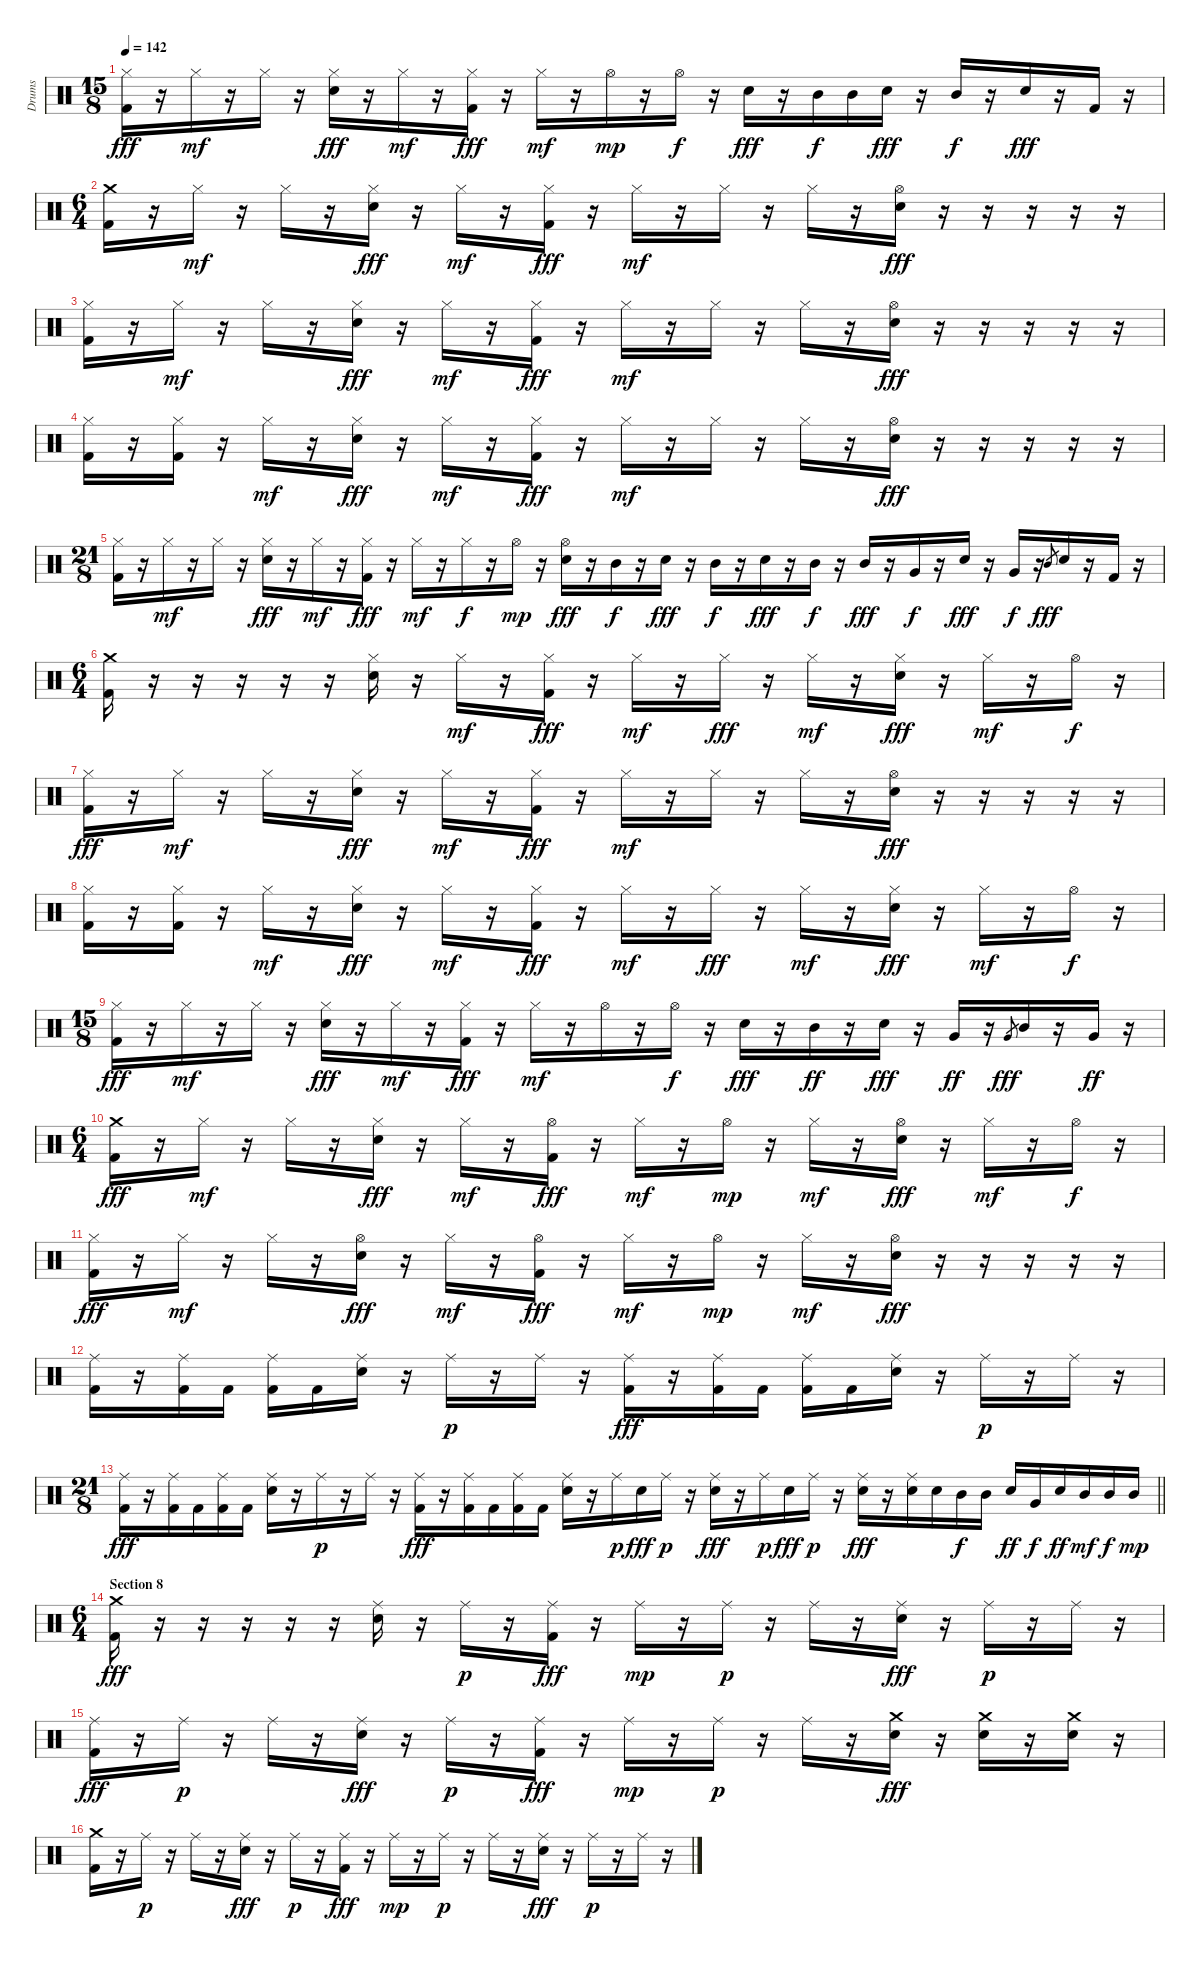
\track ("Drums" "Drums") {instrument percussion}
\staff {score}
\articulation defaults
\ts (15 8)
\tempo 142
\clef neutral
\ks c
("Hi-Hat (closed)" "Kick (hit) 2").16{dy fff} r.16 "Hi-Hat (closed)".16{dy mf} r.16 "Hi-Hat (closed)".16 r.16 ("Hi-Hat (closed)" "Electric Snare (hit)").16{dy fff} r.16 "Hi-Hat (closed)".16{dy mf} r.16 ("Hi-Hat (closed)" "Kick (hit) 2").16{dy fff} r.16 "Hi-Hat (closed)".16{dy mf} r.16 "Hi-Hat (open)".16{dy mp} r.16 "Hi-Hat (open)".16{dy f} r.16 "Electric Snare (hit)".16{dy fff} r.16 "Mid Tom (hit)".16{dy f} "Mid Tom (hit)".16 "Electric Snare (hit)".16{dy fff} r.16 "Mid Tom (hit)".16{dy f} r.16 "Electric Snare (hit)".16{dy fff} r.16 "Kick (hit) 2".16 r.16 |
\ts (6 4)
("Crash medium (hit)" "Kick (hit) 2").16 r.16 "Hi-Hat (closed)".16{dy mf} r.16 "Hi-Hat (closed)".16 r.16 ("Hi-Hat (closed)" "Electric Snare (hit)").16{dy fff} r.16 "Hi-Hat (closed)".16{dy mf} r.16 ("Hi-Hat (closed)" "Kick (hit) 2").16{dy fff} r.16 "Hi-Hat (closed)".16{dy mf} r.16 "Hi-Hat (closed)".16 r.16 "Hi-Hat (closed)".16 r.16 ("Hi-Hat (open)" "Electric Snare (hit)").16{dy fff} r.16 r.16 r.16 r.16 r.16 |
("Hi-Hat (closed)" "Kick (hit) 2").16 r.16 "Hi-Hat (closed)".16{dy mf} r.16 "Hi-Hat (closed)".16 r.16 ("Hi-Hat (closed)" "Electric Snare (hit)").16{dy fff} r.16 "Hi-Hat (closed)".16{dy mf} r.16 ("Hi-Hat (closed)" "Kick (hit) 2").16{dy fff} r.16 "Hi-Hat (closed)".16{dy mf} r.16 "Hi-Hat (closed)".16 r.16 "Hi-Hat (closed)".16 r.16 ("Hi-Hat (open)" "Electric Snare (hit)").16{dy fff} r.16 r.16 r.16 r.16 r.16 |
("Hi-Hat (closed)" "Kick (hit) 2").16 r.16 ("Hi-Hat (closed)" "Kick (hit) 2").16 r.16 "Hi-Hat (closed)".16{dy mf} r.16 ("Hi-Hat (closed)" "Electric Snare (hit)").16{dy fff} r.16 "Hi-Hat (closed)".16{dy mf} r.16 ("Hi-Hat (closed)" "Kick (hit) 2").16{dy fff} r.16 "Hi-Hat (closed)".16{dy mf} r.16 "Hi-Hat (closed)".16 r.16 "Hi-Hat (closed)".16 r.16 ("Hi-Hat (open)" "Electric Snare (hit)").16{dy fff} r.16 r.16 r.16 r.16 r.16 |
\ts (21 8)
("Hi-Hat (closed)" "Kick (hit) 2").16 r.16 "Hi-Hat (closed)".16{dy mf} r.16 "Hi-Hat (closed)".16 r.16 ("Hi-Hat (closed)" "Electric Snare (hit)").16{dy fff} r.16 "Hi-Hat (closed)".16{dy mf} r.16 ("Hi-Hat (closed)" "Kick (hit) 2").16{dy fff} r.16 "Hi-Hat (closed)".16{dy mf} r.16 "Hi-Hat (closed)".16{dy f} r.16 "Hi-Hat (open)".16{dy mp} r.16 ("Hi-Hat (open)" "Electric Snare (hit)").16{dy fff} r.16 "Mid Tom (hit)".16{dy f} r.16 "Electric Snare (hit)".16{dy fff} r.16 "Mid Tom (hit)".16{dy f} r.16 "Electric Snare (hit)".16{dy fff} r.16 "Mid Tom (hit)".16{dy f} r.16 "Mid Tom (hit)".16{dy fff} r.16 "Very Low Tom (hit)".16{dy f} r.16 "Electric Snare (hit)".16{dy fff} r.16 "Very Low Tom (hit)".16{dy f} r.16 "Mid Tom (hit)".8{gr dy fff} "Electric Snare (hit)".16 r.16 "Kick (hit) 2".16 r.16 |
\ts (6 4)
("Crash medium (hit)" "Kick (hit) 2").16 r.16 r.16 r.16 r.16 r.16 ("Hi-Hat (closed)" "Electric Snare (hit)").16 r.16 "Hi-Hat (closed)".16{dy mf} r.16 ("Hi-Hat (closed)" "Kick (hit) 2").16{dy fff} r.16 "Hi-Hat (closed)".16{dy mf} r.16 "Hi-Hat (closed)".16{dy fff} r.16 "Hi-Hat (closed)".16{dy mf} r.16 ("Hi-Hat (closed)" "Electric Snare (hit)").16{dy fff} r.16 "Hi-Hat (closed)".16{dy mf} r.16 "Hi-Hat (open)".16{dy f} r.16 |
("Hi-Hat (closed)" "Kick (hit) 2").16{dy fff} r.16 "Hi-Hat (closed)".16{dy mf} r.16 "Hi-Hat (closed)".16 r.16 ("Hi-Hat (closed)" "Electric Snare (hit)").16{dy fff} r.16 "Hi-Hat (closed)".16{dy mf} r.16 ("Hi-Hat (closed)" "Kick (hit) 2").16{dy fff} r.16 "Hi-Hat (closed)".16{dy mf} r.16 "Hi-Hat (closed)".16 r.16 "Hi-Hat (closed)".16 r.16 ("Hi-Hat (open)" "Electric Snare (hit)").16{dy fff} r.16 r.16 r.16 r.16 r.16 |
("Hi-Hat (closed)" "Kick (hit) 2").16 r.16 ("Hi-Hat (closed)" "Kick (hit) 2").16 r.16 "Hi-Hat (closed)".16{dy mf} r.16 ("Hi-Hat (closed)" "Electric Snare (hit)").16{dy fff} r.16 "Hi-Hat (closed)".16{dy mf} r.16 ("Hi-Hat (closed)" "Kick (hit) 2").16{dy fff} r.16 "Hi-Hat (closed)".16{dy mf} r.16 "Hi-Hat (closed)".16{dy fff} r.16 "Hi-Hat (closed)".16{dy mf} r.16 ("Hi-Hat (closed)" "Electric Snare (hit)").16{dy fff} r.16 "Hi-Hat (closed)".16{dy mf} r.16 "Hi-Hat (open)".16{dy f} r.16 |
\ts (15 8)
("Hi-Hat (closed)" "Kick (hit) 2").16{dy fff} r.16 "Hi-Hat (closed)".16{dy mf} r.16 "Hi-Hat (closed)".16 r.16 ("Hi-Hat (closed)" "Electric Snare (hit)").16{dy fff} r.16 "Hi-Hat (closed)".16{dy mf} r.16 ("Hi-Hat (closed)" "Kick (hit) 2").16{dy fff} r.16 "Hi-Hat (closed)".16{dy mf} r.16 "Hi-Hat (open)".16 r.16 "Hi-Hat (open)".16{dy f} r.16 "Electric Snare (hit)".16{dy fff} r.16 "Mid Tom (hit)".16{dy ff} r.16 "Electric Snare (hit)".16{dy fff} r.16 "Very Low Tom (hit)".16{dy ff} r.16 "Very Low Tom (hit)".8{gr dy fff} "Mid Tom (hit)".16 r.16 "Very Low Tom (hit)".16{dy ff} r.16 |
\ts (6 4)
("Crash medium (hit)" "Kick (hit) 2").16{dy fff} r.16 "Hi-Hat (closed)".16{dy mf} r.16 "Hi-Hat (closed)".16 r.16 ("Hi-Hat (closed)" "Electric Snare (hit)").16{dy fff} r.16 "Hi-Hat (closed)".16{dy mf} r.16 ("Hi-Hat (open)" "Kick (hit) 2").16{dy fff} r.16 "Hi-Hat (closed)".16{dy mf} r.16 "Hi-Hat (open)".16{dy mp} r.16 "Hi-Hat (closed)".16{dy mf} r.16 ("Hi-Hat (open)" "Electric Snare (hit)").16{dy fff} r.16 "Hi-Hat (closed)".16{dy mf} r.16 "Hi-Hat (open)".16{dy f} r.16 |
("Hi-Hat (closed)" "Kick (hit) 2").16{dy fff} r.16 "Hi-Hat (closed)".16{dy mf} r.16 "Hi-Hat (closed)".16 r.16 ("Hi-Hat (open)" "Electric Snare (hit)").16{dy fff} r.16 "Hi-Hat (closed)".16{dy mf} r.16 ("Hi-Hat (open)" "Kick (hit) 2").16{dy fff} r.16 "Hi-Hat (closed)".16{dy mf} r.16 "Hi-Hat (open)".16{dy mp} r.16 "Hi-Hat (closed)".16{dy mf} r.16 ("Hi-Hat (open)" "Electric Snare (hit)").16{dy fff} r.16 r.16 r.16 r.16 r.16 |
("Ride (middle)" "Kick (hit) 2").16 r.16 ("Ride (middle)" "Kick (hit) 2").16 "Kick (hit) 2".16 ("Ride (middle)" "Kick (hit) 2").16 "Kick (hit) 2".16 ("Ride (middle)" "Electric Snare (hit)").16 r.16 "Ride (middle)".16{dy p} r.16 "Ride (middle)".16 r.16 ("Ride (middle)" "Kick (hit) 2").16{dy fff} r.16 ("Ride (middle)" "Kick (hit) 2").16 "Kick (hit) 2".16 ("Ride (middle)" "Kick (hit) 2").16 "Kick (hit) 2".16 ("Ride (middle)" "Electric Snare (hit)").16 r.16 "Ride (middle)".16{dy p} r.16 "Ride (middle)".16 r.16 |
\ts (21 8)
\barLineRight lightlight
("Ride (middle)" "Kick (hit) 2").16{dy fff} r.16 ("Ride (middle)" "Kick (hit) 2").16 "Kick (hit) 2".16 ("Ride (middle)" "Kick (hit) 2").16 "Kick (hit) 2".16 ("Ride (middle)" "Electric Snare (hit)").16 r.16 "Ride (middle)".16{dy p} r.16 "Ride (middle)".16 r.16 ("Ride (middle)" "Kick (hit) 2").16{dy fff} r.16 ("Ride (middle)" "Kick (hit) 2").16 "Kick (hit) 2".16 ("Ride (middle)" "Kick (hit) 2").16 "Kick (hit) 2".16 ("Ride (middle)" "Electric Snare (hit)").16 r.16 "Ride (middle)".16{dy p} "Electric Snare (hit)".16{dy fff} "Ride (middle)".16{dy p} r.16 ("Ride (middle)" "Electric Snare (hit)").16{dy fff} r.16 "Ride (middle)".16{dy p} "Electric Snare (hit)".16{dy fff} "Ride (middle)".16{dy p} r.16 ("Ride (middle)" "Electric Snare (hit)").16{dy fff} r.16 ("Ride (middle)" "Electric Snare (hit)").16 "Electric Snare (hit)".16 "Mid Tom (hit)".16{dy f} "Mid Tom (hit)".16 "Electric Snare (hit)".16{dy ff} "Very Low Tom (hit)".16{dy f} "Electric Snare (hit)".16{dy ff} "Mid Tom (hit)".16{dy mf} "Mid Tom (hit)".16{dy f} "Mid Tom (hit)".16{dy mp} |
\ts (6 4)
\section ("" "Section 8")
("Crash medium (hit)" "Kick (hit) 2").16{dy fff} r.16 r.16 r.16 r.16 r.16 ("Ride (middle)" "Electric Snare (hit)").16 r.16 "Ride (middle)".16{dy p} r.16 ("Ride (middle)" "Kick (hit) 2").16{dy fff} r.16 "Ride (middle)".16{dy mp} r.16 "Ride (middle)".16{dy p} r.16 "Ride (middle)".16 r.16 ("Ride (middle)" "Electric Snare (hit)").16{dy fff} r.16 "Ride (middle)".16{dy p} r.16 "Ride (middle)".16 r.16 |
("Ride (middle)" "Kick (hit) 2").16{dy fff} r.16 "Ride (middle)".16{dy p} r.16 "Ride (middle)".16 r.16 ("Ride (middle)" "Electric Snare (hit)").16{dy fff} r.16 "Ride (middle)".16{dy p} r.16 ("Ride (middle)" "Kick (hit) 2").16{dy fff} r.16 "Ride (middle)".16{dy mp} r.16 "Ride (middle)".16{dy p} r.16 "Ride (middle)".16 r.16 ("Crash medium (hit)" "Electric Snare (hit)").16{dy fff} r.16 ("Crash medium (hit)" "Electric Snare (hit)").16 r.16 ("Crash medium (hit)" "Electric Snare (hit)").16 r.16 |
("Crash medium (hit)" "Kick (hit) 2").16 r.16 "Ride (middle)".16{dy p} r.16 "Ride (middle)".16 r.16 ("Ride (middle)" "Electric Snare (hit)").16{dy fff} r.16 "Ride (middle)".16{dy p} r.16 ("Ride (middle)" "Kick (hit) 2").16{dy fff} r.16 "Ride (middle)".16{dy mp} r.16 "Ride (middle)".16{dy p} r.16 "Ride (middle)".16 r.16 ("Ride (middle)" "Electric Snare (hit)").16{dy fff} r.16 "Ride (middle)".16{dy p} r.16 "Ride (middle)".16 r.16
